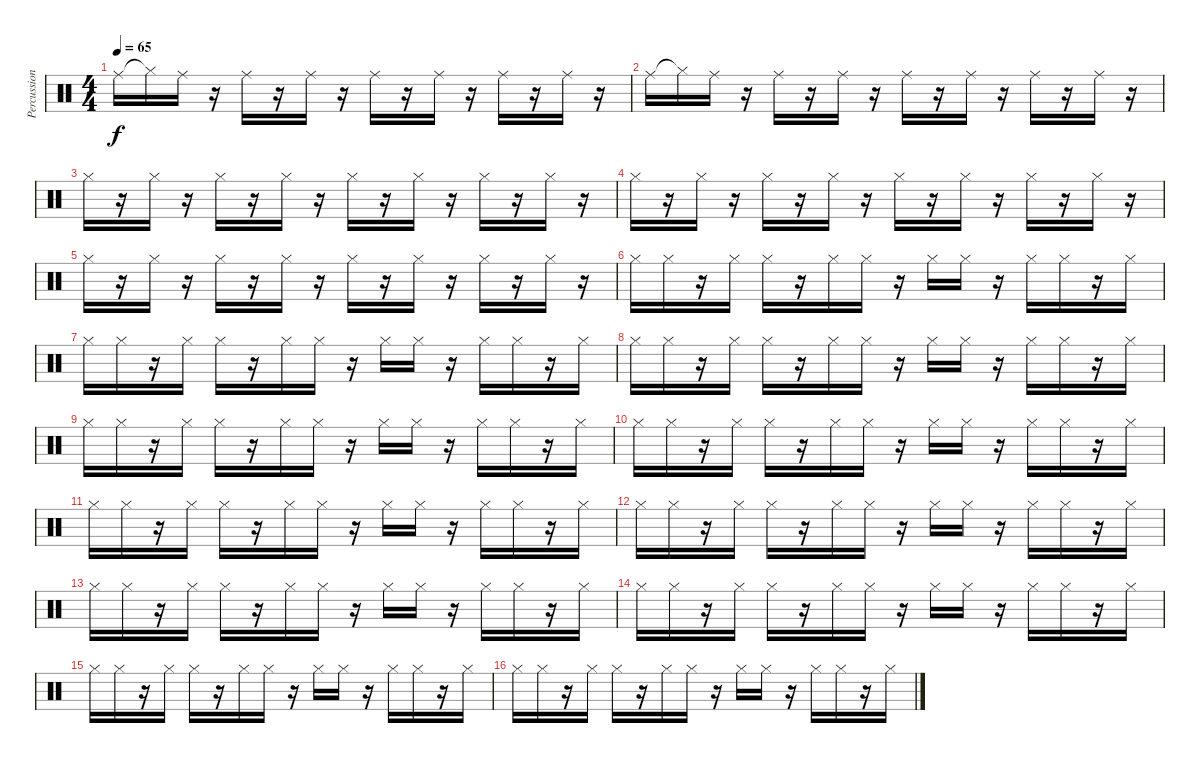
\track ("Percussions" "Percussion") {instrument percussion}
\staff {score}
\articulation defaults
\ts (4 4)
\tempo 65
\clef neutral
\ks c "Ride (middle)".16{dy f volume 12 balance 12} "Hi-Hat (closed)"{t}.16 "Ride (middle)".16{balance 14}
r.16 "Ride (middle)".16 r.16{balance 16} "Ride (middle)".16 r.16 "Ride (middle)".16{balance 6} r.16 "Ride (middle)".16 r.16{volume 12 balance 8} "Ride (middle)".16 r.16 "Ride (middle)".16{balance 10} r.16 |
"Ride (middle)".16{volume 12 balance 12} "Hi-Hat (closed)"{t}.16 "Ride (middle)".16{balance 14} r.16 "Ride (middle)".16 r.16{balance 16} "Ride (middle)".16 r.16 "Ride (middle)".16{balance 6} r.16 "Ride (middle)".16 r.16{volume 12 balance 8} "Ride (middle)".16 r.16 "Ride (middle)".16{balance 10} r.16 |
"Hi-Hat (closed)".16 r.16 "Hi-Hat (closed)".16 r.16 "Hi-Hat (closed)".16 r.16 "Hi-Hat (closed)".16 r.16 "Hi-Hat (closed)".16 r.16 "Hi-Hat (closed)".16 r.16 "Hi-Hat (closed)".16 r.16 "Hi-Hat (closed)".16 r.16 |
"Hi-Hat (closed)".16 r.16 "Hi-Hat (closed)".16 r.16 "Hi-Hat (closed)".16 r.16 "Hi-Hat (closed)".16 r.16 "Hi-Hat (closed)".16 r.16 "Hi-Hat (closed)".16 r.16 "Hi-Hat (closed)".16 r.16 "Hi-Hat (closed)".16 r.16 |
"Hi-Hat (closed)".16 r.16 "Hi-Hat (closed)".16 r.16 "Hi-Hat (closed)".16 r.16 "Hi-Hat (closed)".16 r.16 "Hi-Hat (closed)".16 r.16 "Hi-Hat (closed)".16 r.16 "Hi-Hat (closed)".16 r.16 "Hi-Hat (closed)".16 r.16 |
"Hi-Hat (closed)".16{volume 12 balance 0} "Hi-Hat (closed)".16 r.16{balance 2} "Hi-Hat (closed)".16 "Hi-Hat (closed)".16 r.16{balance 4} "Hi-Hat (closed)".16 "Hi-Hat (closed)".16 r.16{balance 6} "Hi-Hat (closed)".16 "Hi-Hat (closed)".16 r.16{volume 12 balance 8} "Hi-Hat (closed)".16 "Hi-Hat (closed)".16 r.16{balance 10} "Hi-Hat (closed)".16 |
"Hi-Hat (closed)".16{volume 12 balance 0} "Hi-Hat (closed)".16 r.16{balance 2} "Hi-Hat (closed)".16 "Hi-Hat (closed)".16 r.16{balance 4} "Hi-Hat (closed)".16 "Hi-Hat (closed)".16 r.16{balance 6} "Hi-Hat (closed)".16 "Hi-Hat (closed)".16 r.16{volume 12 balance 8} "Hi-Hat (closed)".16 "Hi-Hat (closed)".16 r.16{balance 10} "Hi-Hat (closed)".16 |
"Hi-Hat (closed)".16{volume 12 balance 0} "Hi-Hat (closed)".16 r.16{balance 2} "Hi-Hat (closed)".16 "Hi-Hat (closed)".16 r.16{balance 4} "Hi-Hat (closed)".16 "Hi-Hat (closed)".16 r.16{balance 6} "Hi-Hat (closed)".16 "Hi-Hat (closed)".16 r.16{volume 12 balance 8} "Hi-Hat (closed)".16 "Hi-Hat (closed)".16 r.16{balance 10} "Hi-Hat (closed)".16 |
"Hi-Hat (closed)".16{volume 12 balance 12} "Hi-Hat (closed)".16 r.16{balance 14} "Hi-Hat (closed)".16 "Hi-Hat (closed)".16 r.16{balance 16} "Hi-Hat (closed)".16 "Hi-Hat (closed)".16 r.16{balance 6} "Hi-Hat (closed)".16 "Hi-Hat (closed)".16 r.16{volume 12 balance 8} "Hi-Hat (closed)".16 "Hi-Hat (closed)".16 r.16{balance 10} "Hi-Hat (closed)".16 |
"Hi-Hat (closed)".16{volume 12 balance 0} "Hi-Hat (closed)".16 r.16{balance 2} "Hi-Hat (closed)".16 "Hi-Hat (closed)".16 r.16{balance 4} "Hi-Hat (closed)".16 "Hi-Hat (closed)".16 r.16{balance 6} "Hi-Hat (closed)".16 "Hi-Hat (closed)".16 r.16{volume 12 balance 8} "Hi-Hat (closed)".16 "Hi-Hat (closed)".16 r.16{balance 10} "Hi-Hat (closed)".16 |
"Hi-Hat (closed)".16{volume 12 balance 12} "Hi-Hat (closed)".16 r.16{balance 14} "Hi-Hat (closed)".16 "Hi-Hat (closed)".16 r.16{balance 16} "Hi-Hat (closed)".16 "Hi-Hat (closed)".16 r.16{balance 6} "Hi-Hat (closed)".16 "Hi-Hat (closed)".16 r.16{volume 12 balance 8} "Hi-Hat (closed)".16 "Hi-Hat (closed)".16 r.16{balance 10} "Hi-Hat (closed)".16 |
"Hi-Hat (closed)".16{volume 12 balance 0} "Hi-Hat (closed)".16 r.16{balance 2} "Hi-Hat (closed)".16 "Hi-Hat (closed)".16 r.16{balance 4} "Hi-Hat (closed)".16 "Hi-Hat (closed)".16 r.16{balance 6} "Hi-Hat (closed)".16 "Hi-Hat (closed)".16 r.16{volume 12 balance 8} "Hi-Hat (closed)".16 "Hi-Hat (closed)".16 r.16{balance 10} "Hi-Hat (closed)".16 |
"Hi-Hat (closed)".16{volume 12 balance 12} "Hi-Hat (closed)".16 r.16{balance 14} "Hi-Hat (closed)".16 "Hi-Hat (closed)".16 r.16{balance 16} "Hi-Hat (closed)".16 "Hi-Hat (closed)".16 r.16{balance 6} "Hi-Hat (closed)".16 "Hi-Hat (closed)".16 r.16{volume 12 balance 8} "Hi-Hat (closed)".16 "Hi-Hat (closed)".16 r.16{balance 10} "Hi-Hat (closed)".16 |
"Hi-Hat (closed)".16{volume 12 balance 0} "Hi-Hat (closed)".16 r.16{balance 2} "Hi-Hat (closed)".16 "Hi-Hat (closed)".16 r.16{balance 4} "Hi-Hat (closed)".16 "Hi-Hat (closed)".16 r.16{balance 6} "Hi-Hat (closed)".16 "Hi-Hat (closed)".16 r.16{volume 12 balance 8} "Hi-Hat (closed)".16 "Hi-Hat (closed)".16 r.16{balance 10} "Hi-Hat (closed)".16 |
"Hi-Hat (closed)".16{volume 12 balance 12} "Hi-Hat (closed)".16 r.16{balance 14} "Hi-Hat (closed)".16 "Hi-Hat (closed)".16 r.16{balance 16} "Hi-Hat (closed)".16 "Hi-Hat (closed)".16 r.16{balance 6} "Hi-Hat (closed)".16 "Hi-Hat (closed)".16 r.16{volume 12 balance 8} "Hi-Hat (closed)".16 "Hi-Hat (closed)".16 r.16{balance 10} "Hi-Hat (closed)".16 |
"Hi-Hat (closed)".16{volume 12 balance 0} "Hi-Hat (closed)".16 r.16{balance 2} "Hi-Hat (closed)".16 "Hi-Hat (closed)".16 r.16{balance 4} "Hi-Hat (closed)".16 "Hi-Hat (closed)".16 r.16{balance 6} "Hi-Hat (closed)".16 "Hi-Hat (closed)".16 r.16{volume 12 balance 8} "Hi-Hat (closed)".16 "Hi-Hat (closed)".16 r.16{balance 10} "Hi-Hat (closed)".16
